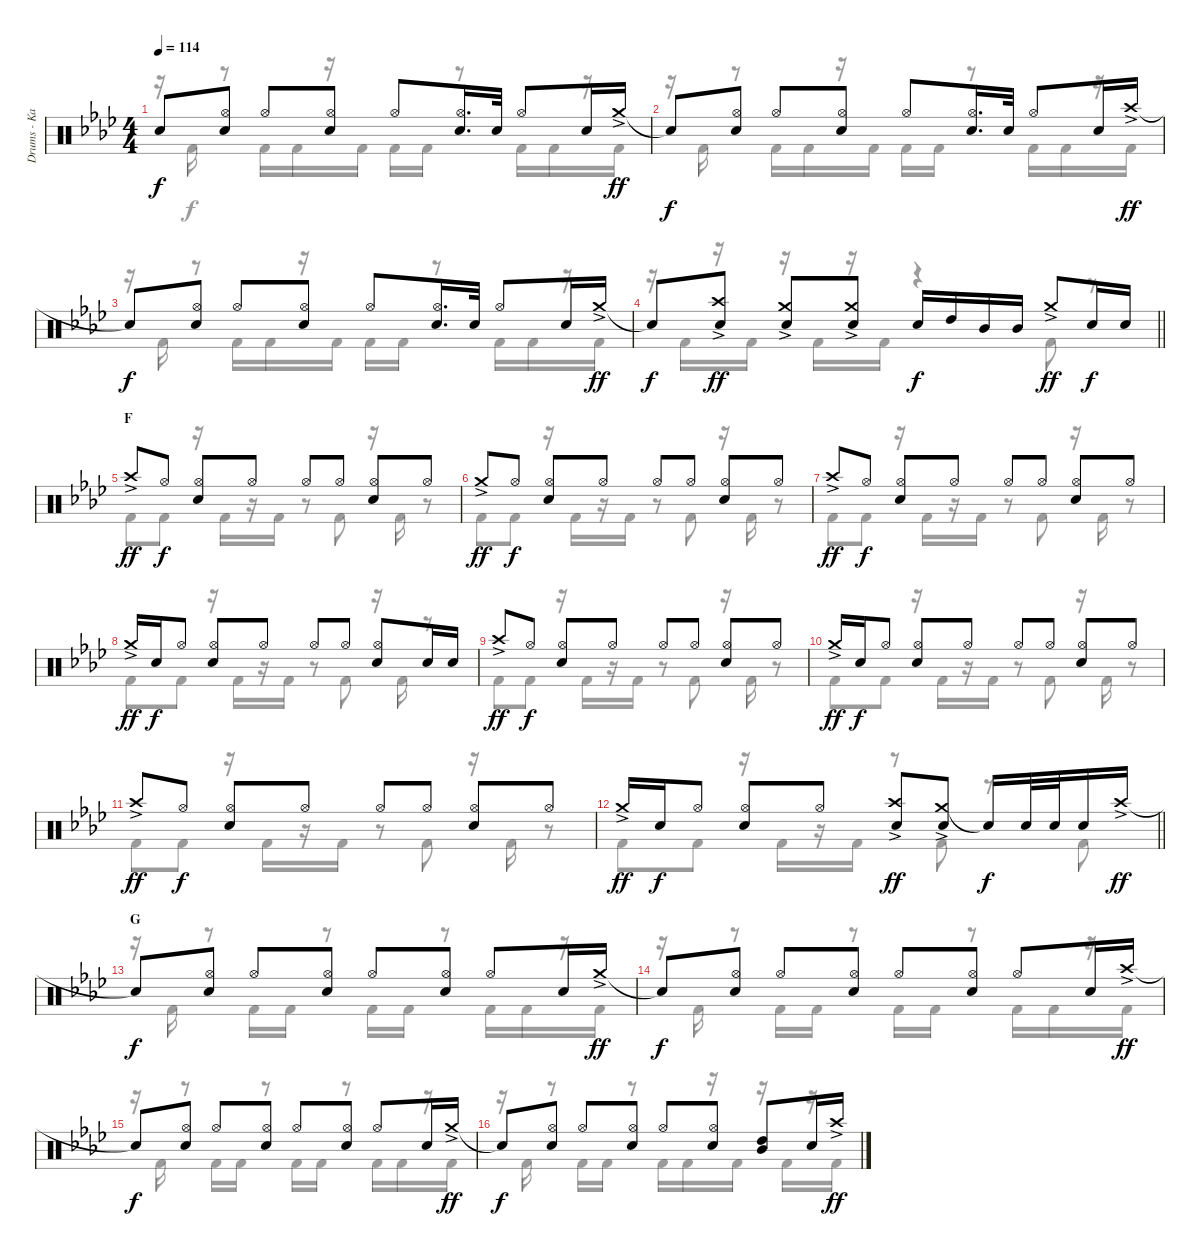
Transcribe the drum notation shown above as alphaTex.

\track ("Drums - Kai" "Drums - Ka") {instrument percussion}
\staff {score}
\articulation defaults
\voice
\ts (4 4)
\tempo 114
\clef neutral
\ks ab "Snare (hit)"{t}.8{dy f}
("Hi-Hat (open)" "Snare (hit) 2").8 "Hi-Hat (open)".8 ("Hi-Hat (open)" "Snare (hit) 2").8 "Hi-Hat (open)".8 ("Hi-Hat (open)" "Snare (hit) 2").16{d} "Snare (hit) 2".32 "Hi-Hat (open)".8 "Snare (hit) 2".16 "Crash medium (hit)"{ac}.16{dy ff} |
"Snare (hit)"{t}.8{dy f} ("Hi-Hat (open)" "Snare (hit) 2").8 "Hi-Hat (open)".8 ("Hi-Hat (open)" "Snare (hit) 2").8 "Hi-Hat (open)".8 ("Hi-Hat (open)" "Snare (hit) 2").16{d} "Snare (hit) 2".32 "Hi-Hat (open)".8 "Snare (hit) 2".16 "Crash high (hit)"{ac}.16{dy ff} |
"Snare (hit)"{t}.8{dy f} ("Hi-Hat (open)" "Snare (hit) 2").8 "Hi-Hat (open)".8 ("Hi-Hat (open)" "Snare (hit) 2").8 "Hi-Hat (open)".8 ("Hi-Hat (open)" "Snare (hit) 2").16{d} "Snare (hit) 2".32 "Hi-Hat (open)".8 "Snare (hit) 2".16 "Crash medium (hit)"{ac}.16{dy ff} |
\barLineRight lightlight "Snare (hit)"{t}.8{dy f}
("Crash high (hit)"{ac} "Snare (hit) 2").8{dy ff} ("Crash medium (hit)"{ac} "Snare (hit) 2").8 ("Crash medium (hit)"{ac} "Snare (hit) 2").8 "Snare (hit) 2".16{dy f} "High Tom (hit)".16 "Mid Tom (hit)".16 "Mid Tom (hit)".16 "Crash medium (hit)"{ac}.8{dy ff} "Snare (hit) 2".16{dy f} "Snare (hit) 2".16 |
\section ("" "F")
"Crash high (hit)"{ac}.8{dy ff} "Hi-Hat (open)".8{dy f} ("Hi-Hat (open)" "Snare (hit) 2").8 "Hi-Hat (open)".8 "Hi-Hat (open)".8 "Hi-Hat (open)".8 ("Hi-Hat (open)" "Snare (hit) 2").8 "Hi-Hat (open)".8 |
"Crash medium (hit)"{ac}.8{dy ff} "Hi-Hat (open)".8{dy f} ("Hi-Hat (open)" "Snare (hit) 2").8 "Hi-Hat (open)".8 "Hi-Hat (open)".8 "Hi-Hat (open)".8 ("Hi-Hat (open)" "Snare (hit) 2").8 "Hi-Hat (open)".8 |
"Crash high (hit)"{ac}.8{dy ff} "Hi-Hat (open)".8{dy f} ("Hi-Hat (open)" "Snare (hit) 2").8 "Hi-Hat (open)".8 "Hi-Hat (open)".8 "Hi-Hat (open)".8 ("Hi-Hat (open)" "Snare (hit) 2").8 "Hi-Hat (open)".8 |
"Crash medium (hit)"{ac}.16{dy ff} "Snare (hit) 2".16{dy f} "Hi-Hat (open)".8 ("Hi-Hat (open)" "Snare (hit) 2").8 "Hi-Hat (open)".8 "Hi-Hat (open)".8 "Hi-Hat (open)".8 ("Hi-Hat (open)" "Snare (hit) 2").8 "Snare (hit) 2".16 "Snare (hit) 2".16 |
"Crash high (hit)"{ac}.8{dy ff} "Hi-Hat (open)".8{dy f} ("Hi-Hat (open)" "Snare (hit) 2").8 "Hi-Hat (open)".8 "Hi-Hat (open)".8 "Hi-Hat (open)".8 ("Hi-Hat (open)" "Snare (hit) 2").8 "Hi-Hat (open)".8 |
"Crash medium (hit)"{ac}.16{dy ff} "Snare (hit) 2".16{dy f} "Hi-Hat (open)".8 ("Hi-Hat (open)" "Snare (hit) 2").8 "Hi-Hat (open)".8 "Hi-Hat (open)".8 "Hi-Hat (open)".8 ("Hi-Hat (open)" "Snare (hit) 2").8 "Hi-Hat (open)".8 |
"Crash high (hit)"{ac}.8{dy ff} "Hi-Hat (open)".8{dy f} ("Hi-Hat (open)" "Snare (hit) 2").8 "Hi-Hat (open)".8 "Hi-Hat (open)".8 "Hi-Hat (open)".8 ("Hi-Hat (open)" "Snare (hit) 2").8 "Hi-Hat (open)".8 |
\barLineRight lightlight "Crash medium (hit)"{ac}.16{dy ff} "Snare (hit) 2".16{dy f} "Hi-Hat (open)".8
("Hi-Hat (open)" "Snare (hit) 2").8 "Hi-Hat (open)".8 ("Crash high (hit)"{ac} "Snare (hit) 2").8{dy ff} ("Crash medium (hit)"{ac} "Snare (hit) 2").8 "Snare (hit)"{t}.16{dy f} "Snare (hit) 2".32 "Snare (hit) 2".32 "Snare (hit) 2".16 "Crash high (hit)"{ac}.16{dy ff} |
\section ("" "G")
"Snare (hit)"{t}.8{dy f} ("Hi-Hat (open)" "Snare (hit) 2").8 "Hi-Hat (open)".8 ("Hi-Hat (open)" "Snare (hit) 2").8 "Hi-Hat (open)".8 ("Hi-Hat (open)" "Snare (hit) 2").8 "Hi-Hat (open)".8 "Snare (hit) 2".16 "Crash medium (hit)"{ac}.16{dy ff} |
"Snare (hit)"{t}.8{dy f} ("Hi-Hat (open)" "Snare (hit) 2").8 "Hi-Hat (open)".8 ("Hi-Hat (open)" "Snare (hit) 2").8 "Hi-Hat (open)".8 ("Hi-Hat (open)" "Snare (hit) 2").8 "Hi-Hat (open)".8 "Snare (hit) 2".16 "Crash high (hit)"{ac}.16{dy ff} |
"Snare (hit)"{t}.8{dy f} ("Hi-Hat (open)" "Snare (hit) 2").8 "Hi-Hat (open)".8 ("Hi-Hat (open)" "Snare (hit) 2").8 "Hi-Hat (open)".8 ("Hi-Hat (open)" "Snare (hit) 2").8 "Hi-Hat (open)".8 "Snare (hit) 2".16 "Crash medium (hit)"{ac}.16{dy ff} |
"Snare (hit)"{t}.8{dy f} ("Hi-Hat (open)" "Snare (hit) 2").8 "Hi-Hat (open)".8 ("Hi-Hat (open)" "Snare (hit) 2").8 "Hi-Hat (open)".8 ("Hi-Hat (open)" "Snare (hit) 2").8 ("High Tom (hit)" "Mid Tom (hit)").8 "Snare (hit) 2".16 "Crash high (hit)"{ac}.16{dy ff}
\voice
\clef neutral
\ottava regular
\simile none
\ks ab
r.16{dy f} "Kick (hit) 2".16 r.8 "Kick (hit) 2".16 "Kick (hit) 2".16 r.16 "Kick (hit) 2".16 "Kick (hit) 2".16 "Kick (hit) 2".16 r.8 "Kick (hit) 2".16 "Kick (hit) 2".16 r.16 "Kick (hit) 2".16 |
r.16 "Kick (hit) 2".16 r.8 "Kick (hit) 2".16 "Kick (hit) 2".16 r.16 "Kick (hit) 2".16 "Kick (hit) 2".16 "Kick (hit) 2".16 r.8 "Kick (hit) 2".16 "Kick (hit) 2".16 r.16 "Kick (hit) 2".16 |
r.16 "Kick (hit) 2".16 r.8 "Kick (hit) 2".16 "Kick (hit) 2".16 r.16 "Kick (hit) 2".16 "Kick (hit) 2".16 "Kick (hit) 2".16 r.8 "Kick (hit) 2".16 "Kick (hit) 2".16 r.16 "Kick (hit) 2".16 |
\barLineRight lightlight
r.16 "Kick (hit) 2".16 r.16 "Kick (hit) 2".16 r.16 "Kick (hit) 2".16 r.16 "Kick (hit) 2".16 r.4 "Kick (hit) 2".8 r.8 |
"Kick (hit) 2".8 "Kick (hit) 2".8 r.16 "Kick (hit) 2".16 r.16 "Kick (hit) 2".16 r.8 "Kick (hit) 2".8 r.16 "Kick (hit) 2".16 r.8 |
"Kick (hit) 2".8 "Kick (hit) 2".8 r.16 "Kick (hit) 2".16 r.16 "Kick (hit) 2".16 r.8 "Kick (hit) 2".8 r.16 "Kick (hit) 2".16 r.8 |
"Kick (hit) 2".8 "Kick (hit) 2".8 r.16 "Kick (hit) 2".16 r.16 "Kick (hit) 2".16 r.8 "Kick (hit) 2".8 r.16 "Kick (hit) 2".16 r.8 |
"Kick (hit) 2".8 "Kick (hit) 2".8 r.16 "Kick (hit) 2".16 r.16 "Kick (hit) 2".16 r.8 "Kick (hit) 2".8 r.16 "Kick (hit) 2".16 r.8 |
"Kick (hit) 2".8 "Kick (hit) 2".8 r.16 "Kick (hit) 2".16 r.16 "Kick (hit) 2".16 r.8 "Kick (hit) 2".8 r.16 "Kick (hit) 2".16 r.8 |
"Kick (hit) 2".8 "Kick (hit) 2".8 r.16 "Kick (hit) 2".16 r.16 "Kick (hit) 2".16 r.8 "Kick (hit) 2".8 r.16 "Kick (hit) 2".16 r.8 |
"Kick (hit) 2".8 "Kick (hit) 2".8 r.16 "Kick (hit) 2".16 r.16 "Kick (hit) 2".16 r.8 "Kick (hit) 2".8 r.16 "Kick (hit) 2".16 r.8 |
\barLineRight lightlight "Kick (hit) 2".8 "Kick (hit) 2".8
r.16 "Kick (hit) 2".16 r.16 "Kick (hit) 2".16 r.8 "Kick (hit) 2".8 r.8 "Kick (hit) 2".8 |
r.16 "Kick (hit) 2".16 r.8 "Kick (hit) 2".16 "Kick (hit) 2".16 r.8 "Kick (hit) 2".16 "Kick (hit) 2".16 r.8 "Kick (hit) 2".16 "Kick (hit) 2".16 r.16 "Kick (hit) 2".16 |
r.16 "Kick (hit) 2".16 r.8 "Kick (hit) 2".16 "Kick (hit) 2".16 r.8 "Kick (hit) 2".16 "Kick (hit) 2".16 r.8 "Kick (hit) 2".16 "Kick (hit) 2".16 r.16 "Kick (hit) 2".16 |
r.16 "Kick (hit) 2".16 r.8 "Kick (hit) 2".16 "Kick (hit) 2".16 r.8 "Kick (hit) 2".16 "Kick (hit) 2".16 r.8 "Kick (hit) 2".16 "Kick (hit) 2".16 r.16 "Kick (hit) 2".16 |
r.16 "Kick (hit) 2".16 r.8 "Kick (hit) 2".16 "Kick (hit) 2".16 r.8 "Kick (hit) 2".16 "Kick (hit) 2".16 r.16 "Kick (hit) 2".16 r.16 "Kick (hit) 2".16 r.16 "Kick (hit) 2".16
